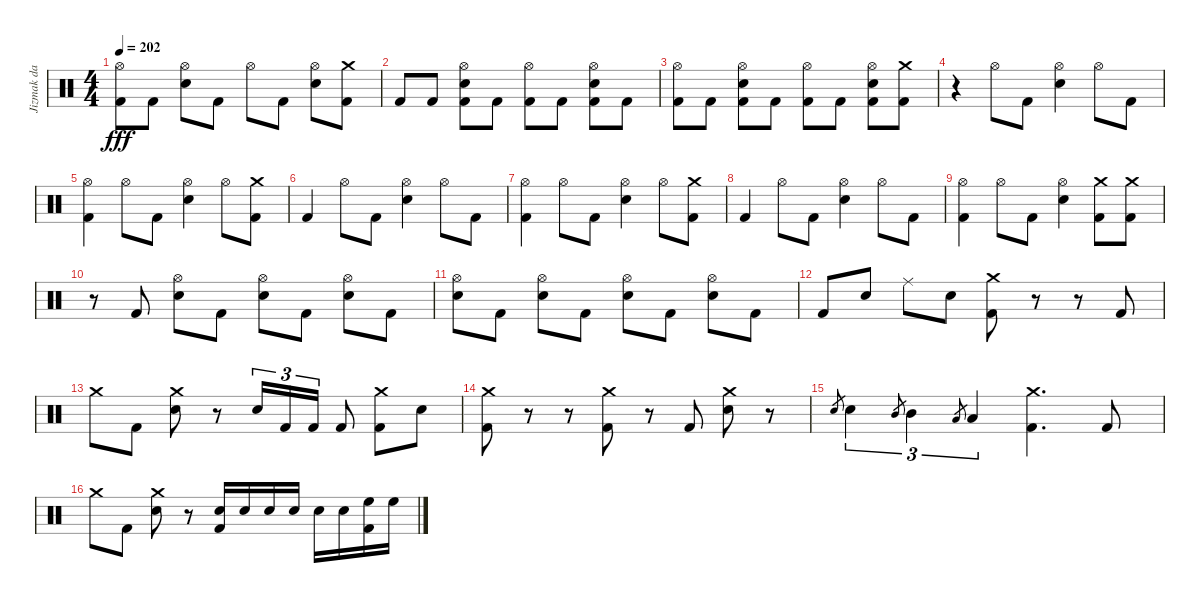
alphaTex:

\track ("Jizmak da Gusha" "Jizmak da ") {instrument percussion}
\staff {score}
\articulation defaults
\ts (4 4)
\tempo 202
\clef neutral
\ks c
("Hi-Hat (open)" "Kick (hit) 2").8{dy fff} "Kick (hit) 2".8 ("Hi-Hat (open)" "Electric Snare (hit)").8 "Kick (hit) 2".8 "Hi-Hat (open)".8 "Kick (hit) 2".8 ("Hi-Hat (open)" "Electric Snare (hit)").8 ("Crash medium (hit)" "Kick (hit) 2").8 |
"Kick (hit) 2".8 "Kick (hit) 2".8 ("Hi-Hat (open)" "Electric Snare (hit)" "Kick (hit) 2").8 "Kick (hit) 2".8 ("Hi-Hat (open)" "Kick (hit) 2").8 "Kick (hit) 2".8 ("Hi-Hat (open)" "Electric Snare (hit)" "Kick (hit) 2").8 "Kick (hit) 2".8 |
("Hi-Hat (open)" "Kick (hit) 2").8 "Kick (hit) 2".8 ("Hi-Hat (open)" "Electric Snare (hit)" "Kick (hit) 2").8 "Kick (hit) 2".8 ("Hi-Hat (open)" "Kick (hit) 2").8 "Kick (hit) 2".8 ("Hi-Hat (open)" "Electric Snare (hit)" "Kick (hit) 2").8 ("Crash medium (hit)" "Kick (hit) 2").8 |
r.4 "Hi-Hat (open)".8 "Kick (hit) 2".8 ("Hi-Hat (open)" "Electric Snare (hit)").4 "Hi-Hat (open)".8 "Kick (hit) 2".8 |
("Hi-Hat (open)" "Kick (hit) 2").4 "Hi-Hat (open)".8 "Kick (hit) 2".8 ("Hi-Hat (open)" "Electric Snare (hit)").4 "Hi-Hat (open)".8 ("Crash medium (hit)" "Kick (hit) 2").8 |
"Kick (hit) 2".4 "Hi-Hat (open)".8 "Kick (hit) 2".8 ("Hi-Hat (open)" "Electric Snare (hit)").4 "Hi-Hat (open)".8 "Kick (hit) 2".8 |
("Hi-Hat (open)" "Kick (hit) 2").4 "Hi-Hat (open)".8 "Kick (hit) 2".8 ("Hi-Hat (open)" "Electric Snare (hit)").4 "Hi-Hat (open)".8 ("Crash medium (hit)" "Kick (hit) 2").8 |
"Kick (hit) 2".4 "Hi-Hat (open)".8 "Kick (hit) 2".8 ("Hi-Hat (open)" "Electric Snare (hit)").4 "Hi-Hat (open)".8 "Kick (hit) 2".8 |
("Hi-Hat (open)" "Kick (hit) 2").4 "Hi-Hat (open)".8 "Kick (hit) 2".8 ("Hi-Hat (open)" "Electric Snare (hit)").4 ("Crash medium (hit)" "Kick (hit) 2").8 ("Crash medium (hit)" "Kick (hit) 2").8 |
r.8 "Kick (hit) 2".8 ("Hi-Hat (open)" "Electric Snare (hit)").8 "Kick (hit) 2".8 ("Hi-Hat (open)" "Electric Snare (hit)").8 "Kick (hit) 2".8 ("Hi-Hat (open)" "Electric Snare (hit)").8 "Kick (hit) 2".8 |
("Hi-Hat (open)" "Electric Snare (hit)").8 "Kick (hit) 2".8 ("Hi-Hat (open)" "Electric Snare (hit)").8 "Kick (hit) 2".8 ("Hi-Hat (open)" "Electric Snare (hit)").8 "Kick (hit) 2".8 ("Hi-Hat (open)" "Electric Snare (hit)").8 "Kick (hit) 2".8 |
"Kick (hit) 2".8 "Electric Snare (hit)".8 "Ride (middle)".8 "Electric Snare (hit)".8 ("Crash medium (hit)" "Kick (hit) 2").8 r.8 r.8 "Kick (hit) 2".8 |
"Crash medium (hit)".8 "Kick (hit) 2".8 ("Crash medium (hit)" "Electric Snare (hit)").8 r.8 "Electric Snare (hit)".16{tu (3 2)} "Kick (hit) 2".16{tu (3 2)} "Kick (hit) 2".16{tu (3 2)} "Kick (hit) 2".8 ("Crash medium (hit)" "Kick (hit) 2").8 "Electric Snare (hit)".8 |
("Crash medium (hit)" "Kick (hit) 2").8 r.8 r.8 ("Crash medium (hit)" "Kick (hit) 2").8 r.8 "Kick (hit) 2".8 ("Crash medium (hit)" "Electric Snare (hit)").8 r.8 |
"Electric Snare (hit)".8{gr} "Electric Snare (hit)".4{tu (3 2)} "Mid Tom (hit)".8{gr} "Mid Tom (hit)".4{tu (3 2)} "Low Tom (hit)".8{gr} "Low Tom (hit)".4{tu (3 2)} ("Crash medium (hit)" "Kick (hit) 2").4{d} "Kick (hit) 2".8 |
"Crash medium (hit)".8 "Kick (hit) 2".8 ("Crash medium (hit)" "Electric Snare (hit)").8 r.8 ("Electric Snare (hit)" "Kick (hit) 2").16 "Electric Snare (hit)".16 "Electric Snare (hit)".16 "Electric Snare (hit)".16 "Electric Snare (hit)".16 "Electric Snare (hit)".16 ("High Floor Tom (hit)" "Kick (hit) 2").16 "High Floor Tom (hit)".16
